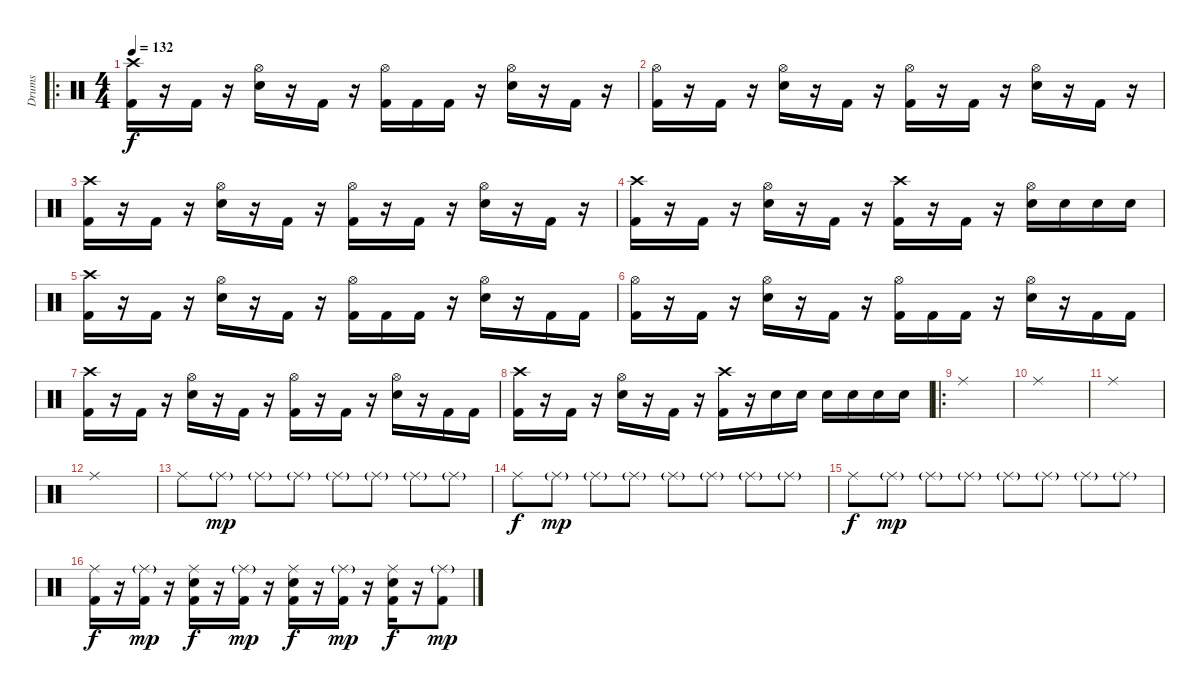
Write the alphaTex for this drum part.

\track ("Drums" "Drums") {instrument percussion}
\staff {score}
\articulation defaults
\ro
\ts (4 4)
\tempo 132
\clef neutral
\ks c
("Kick (hit) 2" "Crash high (hit)").16{dy f} r.16 "Kick (hit) 2".16 r.16 ("Snare (hit) 2" "Hi-Hat (open)").16 r.16 "Kick (hit) 2".16 r.16 ("Kick (hit) 2" "Hi-Hat (open)").16 "Kick (hit) 2".16 "Kick (hit) 2".16 r.16 ("Snare (hit) 2" "Hi-Hat (open)").16 r.16 "Kick (hit) 2".16 r.16 |
("Kick (hit) 2" "Hi-Hat (open)").16 r.16 "Kick (hit) 2".16 r.16 ("Snare (hit) 2" "Hi-Hat (open)").16 r.16 "Kick (hit) 2".16 r.16 ("Kick (hit) 2" "Hi-Hat (open)").16 r.16 "Kick (hit) 2".16 r.16 ("Snare (hit) 2" "Hi-Hat (open)").16 r.16 "Kick (hit) 2".16 r.16 |
("Kick (hit) 2" "Crash high (hit)").16 r.16 "Kick (hit) 2".16 r.16 ("Snare (hit) 2" "Hi-Hat (open)").16 r.16 "Kick (hit) 2".16 r.16 ("Kick (hit) 2" "Hi-Hat (open)").16 r.16 "Kick (hit) 2".16 r.16 ("Snare (hit) 2" "Hi-Hat (open)").16 r.16 "Kick (hit) 2".16 r.16 |
("Kick (hit) 2" "Crash high (hit)").16 r.16 "Kick (hit) 2".16 r.16 ("Snare (hit) 2" "Hi-Hat (open)").16 r.16 "Kick (hit) 2".16 r.16 ("Kick (hit) 2" "Crash high (hit)").16 r.16 "Kick (hit) 2".16 r.16 ("Snare (hit) 2" "Hi-Hat (open)").16 "Snare (hit) 2".16 "Snare (hit) 2".16 "Snare (hit) 2".16 |
("Kick (hit) 2" "Crash high (hit)").16 r.16 "Kick (hit) 2".16 r.16 ("Snare (hit) 2" "Hi-Hat (open)").16 r.16 "Kick (hit) 2".16 r.16 ("Kick (hit) 2" "Hi-Hat (open)").16 "Kick (hit) 2".16 "Kick (hit) 2".16 r.16 ("Snare (hit) 2" "Hi-Hat (open)").16 r.16 "Kick (hit) 2".16 "Kick (hit) 2".16 |
("Kick (hit) 2" "Hi-Hat (open)").16 r.16 "Kick (hit) 2".16 r.16 ("Snare (hit) 2" "Hi-Hat (open)").16 r.16 "Kick (hit) 2".16 r.16 ("Kick (hit) 2" "Hi-Hat (open)").16 "Kick (hit) 2".16 "Kick (hit) 2".16 r.16 ("Snare (hit) 2" "Hi-Hat (open)").16 r.16 "Kick (hit) 2".16 "Kick (hit) 2".16 |
("Kick (hit) 2" "Crash high (hit)").16 r.16 "Kick (hit) 2".16 r.16 ("Snare (hit) 2" "Hi-Hat (open)").16 r.16 "Kick (hit) 2".16 r.16 ("Kick (hit) 2" "Hi-Hat (open)").16 r.16 "Kick (hit) 2".16 r.16 ("Snare (hit) 2" "Hi-Hat (open)").16 r.16 "Kick (hit) 2".16 "Kick (hit) 2".16 |
("Kick (hit) 2" "Crash high (hit)").16 r.16 "Kick (hit) 2".16 r.16 ("Snare (hit) 2" "Hi-Hat (open)").16 r.16 "Kick (hit) 2".16 r.16 ("Kick (hit) 2" "Crash high (hit)").16 r.16 "Snare (hit) 2".16 "Snare (hit) 2".16 "Snare (hit) 2".16 "Snare (hit) 2".16 "Snare (hit) 2".16 "Snare (hit) 2".16 |
\ro "Ride (middle)".1
|
"Ride (middle)".1 |
"Ride (middle)".1 |
"Ride (middle)".1 |
"Ride (middle)".8 "Ride (middle)"{g}.8{dy mp} "Ride (middle)"{g}.8 "Ride (middle)"{g}.8 "Ride (middle)"{g}.8 "Ride (middle)"{g}.8 "Ride (middle)"{g}.8 "Ride (middle)"{g}.8 |
"Ride (middle)".8{dy f} "Ride (middle)"{g}.8{dy mp} "Ride (middle)"{g}.8 "Ride (middle)"{g}.8 "Ride (middle)"{g}.8 "Ride (middle)"{g}.8 "Ride (middle)"{g}.8 "Ride (middle)"{g}.8 |
"Ride (middle)".8{dy f} "Ride (middle)"{g}.8{dy mp} "Ride (middle)"{g}.8 "Ride (middle)"{g}.8 "Ride (middle)"{g}.8 "Ride (middle)"{g}.8 "Ride (middle)"{g}.8 "Ride (middle)"{g}.8 |
("Ride (middle)" "Kick (hit) 2").16{dy f} r.16 ("Ride (middle)"{g} "Kick (hit) 2").16{dy mp} r.16 ("Ride (middle)" "Snare (hit) 2" "Kick (hit) 2").16{dy f} r.16 ("Ride (middle)"{g} "Kick (hit) 2").16{dy mp} r.16 ("Ride (middle)" "Snare (hit) 2" "Kick (hit) 2").16{dy f} r.16 ("Ride (middle)"{g} "Kick (hit) 2").16{dy mp} r.16 ("Ride (middle)" "Snare (hit) 2" "Kick (hit) 2").16{dy f} r.16 ("Ride (middle)"{g} "Kick (hit) 2").8{dy mp}
